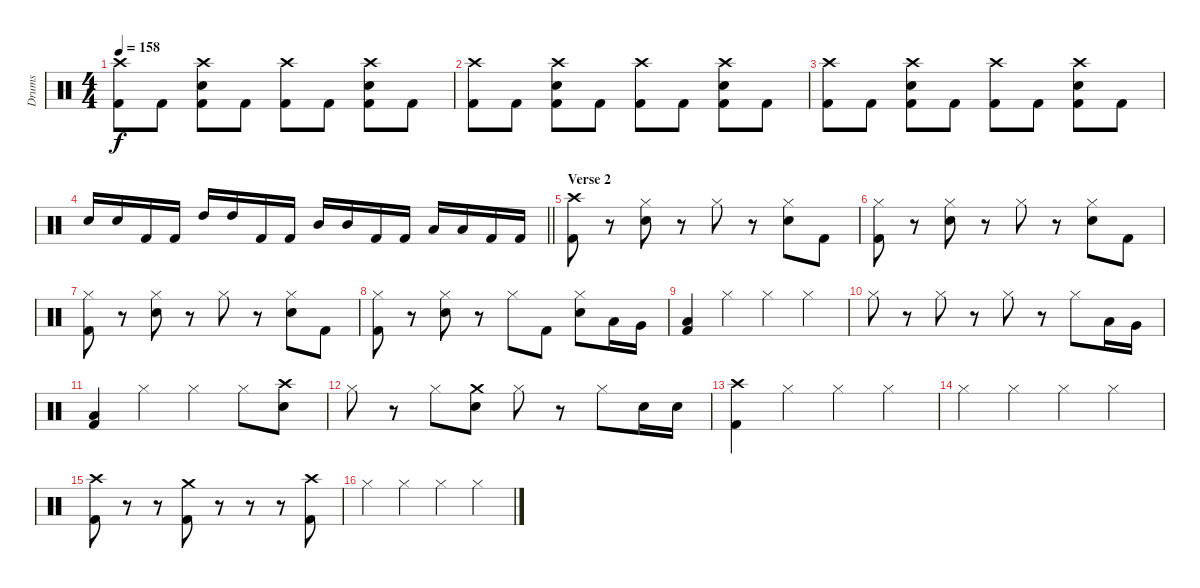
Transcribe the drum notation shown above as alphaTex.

\track ("Drums" "Drums") {instrument percussion}
\staff {score}
\articulation defaults
\ts (4 4)
\tempo 158
\clef neutral
\ks c
("Crash high (hit)" "Kick (hit) 2").8{dy f} "Kick (hit) 2".8 ("Crash high (hit)" "Snare (hit) 2" "Kick (hit) 2").8 "Kick (hit) 2".8 ("Crash high (hit)" "Kick (hit) 2").8 "Kick (hit) 2".8 ("Crash high (hit)" "Snare (hit) 2" "Kick (hit) 2").8 "Kick (hit) 2".8 |
("Crash high (hit)" "Kick (hit) 2").8 "Kick (hit) 2".8 ("Crash high (hit)" "Snare (hit) 2" "Kick (hit) 2").8 "Kick (hit) 2".8 ("Crash high (hit)" "Kick (hit) 2").8 "Kick (hit) 2".8 ("Crash high (hit)" "Snare (hit) 2" "Kick (hit) 2").8 "Kick (hit) 2".8 |
("Crash high (hit)" "Kick (hit) 2").8 "Kick (hit) 2".8 ("Crash high (hit)" "Snare (hit) 2" "Kick (hit) 2").8 "Kick (hit) 2".8 ("Crash high (hit)" "Kick (hit) 2").8 "Kick (hit) 2".8 ("Crash high (hit)" "Snare (hit) 2" "Kick (hit) 2").8 "Kick (hit) 2".8 |
\barLineRight lightlight "Snare (hit) 2".16 "Snare (hit) 2".16 "Kick (hit) 2".16 "Kick (hit) 2".16 "High Tom (hit)".16 "High Tom (hit)".16 "Kick (hit) 2".16 "Kick (hit) 2".16 "Mid Tom (hit)".16 "Mid Tom (hit)".16 "Kick (hit) 2".16 "Kick (hit) 2".16 "Low Tom (hit)".16 "Low Tom (hit)".16 "Kick (hit) 2".16 "Kick (hit) 2".16
|
\section ("" "Verse 2")
("Crash high (hit)" "Kick (hit) 2").8 r.8 ("Hi-Hat (closed)" "Snare (hit) 2").8 r.8 "Hi-Hat (closed)".8 r.8 ("Hi-Hat (closed)" "Snare (hit) 2").8 "Kick (hit) 2".8 |
("Hi-Hat (closed)" "Kick (hit) 2").8 r.8 ("Hi-Hat (closed)" "Snare (hit) 2").8 r.8 "Hi-Hat (closed)".8 r.8 ("Hi-Hat (closed)" "Snare (hit) 2").8 "Kick (hit) 2".8 |
("Hi-Hat (closed)" "Kick (hit) 2").8 r.8 ("Hi-Hat (closed)" "Snare (hit) 2").8 r.8 "Hi-Hat (closed)".8 r.8 ("Hi-Hat (closed)" "Snare (hit) 2").8 "Kick (hit) 2".8 |
("Hi-Hat (closed)" "Kick (hit) 2").8 r.8 ("Hi-Hat (closed)" "Snare (hit) 2").8 r.8 "Hi-Hat (closed)".8 "Kick (hit) 2".8 ("Hi-Hat (closed)" "Snare (hit) 2").8 "Low Tom (hit)".16 "Very Low Tom (hit)".16 |
("Low Floor Tom (hit)" "Kick (hit) 2").4 "Hi-Hat (closed)".4 "Hi-Hat (closed)".4 "Hi-Hat (closed)".4 |
"Hi-Hat (closed)".8 r.8 "Hi-Hat (closed)".8 r.8 "Hi-Hat (closed)".8 r.8 "Hi-Hat (closed)".8 "Low Tom (hit)".16 "Very Low Tom (hit)".16 |
("Low Floor Tom (hit)" "Kick (hit) 2").4 "Hi-Hat (closed)".4 "Hi-Hat (closed)".4 "Hi-Hat (closed)".8 ("Crash high (hit)" "Snare (hit) 2").8 |
"Hi-Hat (closed)".8 r.8 "Hi-Hat (closed)".8 ("Crash medium (hit)" "Snare (hit) 2").8 "Hi-Hat (closed)".8 r.8 "Hi-Hat (closed)".8 "Snare (hit) 2".16 "Snare (hit) 2".16 |
("Crash high (hit)" "Kick (hit) 2").4 "Hi-Hat (closed)".4 "Hi-Hat (closed)".4 "Hi-Hat (closed)".4 |
"Hi-Hat (closed)".4 "Hi-Hat (closed)".4 "Hi-Hat (closed)".4 "Hi-Hat (closed)".4 |
("Crash high (hit)" "Kick (hit) 2").8 r.8 r.8 ("Crash medium (hit)" "Kick (hit) 2").8 r.8 r.8 r.8 ("Crash high (hit)" "Kick (hit) 2").8 |
"Hi-Hat (closed)".4 "Hi-Hat (closed)".4 "Hi-Hat (closed)".4 "Hi-Hat (closed)".4
